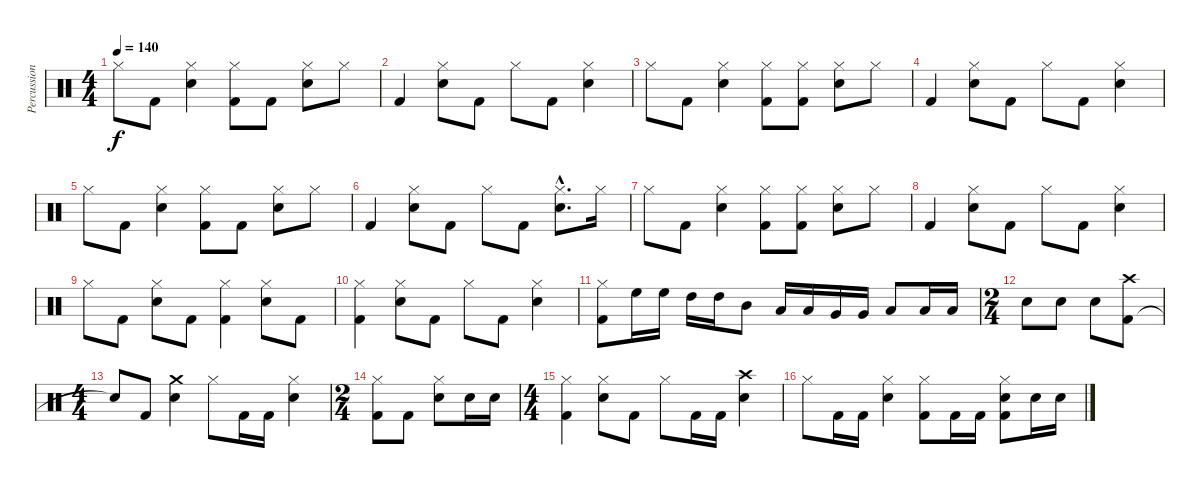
\track ("Percussion" "Percussion") {instrument percussion}
\staff {score}
\articulation defaults
\ts (4 4)
\tempo 140
\clef neutral
\ks c "Hi-Hat (closed)".8{dy f} "Kick (hit) 2".8
("Snare (hit) 2" "Hi-Hat (closed)").4 ("Kick (hit) 2" "Hi-Hat (closed)").8 "Kick (hit) 2".8 ("Snare (hit) 2" "Hi-Hat (closed)").8 "Hi-Hat (closed)".8 |
"Kick (hit) 2".4 ("Snare (hit) 2" "Hi-Hat (closed)").8 "Kick (hit) 2".8 "Hi-Hat (closed)".8 "Kick (hit) 2".8 ("Snare (hit) 2" "Hi-Hat (closed)").4 |
"Hi-Hat (closed)".8 "Kick (hit) 2".8 ("Snare (hit) 2" "Hi-Hat (closed)").4 ("Kick (hit) 2" "Hi-Hat (closed)").8 ("Kick (hit) 2" "Hi-Hat (closed)").8 ("Snare (hit) 2" "Hi-Hat (closed)").8 "Hi-Hat (closed)".8 |
"Kick (hit) 2".4 ("Snare (hit) 2" "Hi-Hat (closed)").8 "Kick (hit) 2".8 "Hi-Hat (closed)".8 "Kick (hit) 2".8 ("Snare (hit) 2" "Hi-Hat (closed)").4 |
"Hi-Hat (closed)".8 "Kick (hit) 2".8 ("Snare (hit) 2" "Hi-Hat (closed)").4 ("Kick (hit) 2" "Hi-Hat (closed)").8 "Kick (hit) 2".8 ("Snare (hit) 2" "Hi-Hat (closed)").8 "Hi-Hat (closed)".8 |
"Kick (hit) 2".4 ("Snare (hit) 2" "Hi-Hat (closed)").8 "Kick (hit) 2".8 "Hi-Hat (closed)".8 "Kick (hit) 2".8 ("Snare (hit) 2"{hac} "Hi-Hat (closed)"{hac}).8{d} "Hi-Hat (closed)".16 |
"Hi-Hat (closed)".8 "Kick (hit) 2".8 ("Snare (hit) 2" "Hi-Hat (closed)").4 ("Kick (hit) 2" "Hi-Hat (closed)").8 ("Kick (hit) 2" "Hi-Hat (closed)").8 ("Snare (hit) 2" "Hi-Hat (closed)").8 "Hi-Hat (closed)".8 |
"Kick (hit) 2".4 ("Snare (hit) 2" "Hi-Hat (closed)").8 "Kick (hit) 2".8 "Hi-Hat (closed)".8 "Kick (hit) 2".8 ("Snare (hit) 2" "Hi-Hat (closed)").4 |
"Hi-Hat (closed)".8 "Kick (hit) 2".8 ("Snare (hit) 2" "Hi-Hat (closed)").8 "Kick (hit) 2".8 ("Kick (hit) 2" "Hi-Hat (closed)").4 ("Snare (hit) 2" "Hi-Hat (closed)").8 "Kick (hit) 2".8 |
("Kick (hit) 2" "Hi-Hat (closed)").4 ("Snare (hit) 2" "Hi-Hat (closed)").8 "Kick (hit) 2".8 "Hi-Hat (closed)".8 "Kick (hit) 2".8 ("Snare (hit) 2" "Hi-Hat (closed)").4 |
("Kick (hit) 2" "Hi-Hat (closed)").8 "High Floor Tom (hit)".16 "High Floor Tom (hit)".16 "High Tom (hit)".16 "High Tom (hit)".16 "Mid Tom (hit)".8 "Low Tom (hit)".16 "Low Tom (hit)".16 "Very Low Tom (hit)".16 "Very Low Tom (hit)".16 "Low Floor Tom (hit)".8 "Low Tom (hit)".16 "Low Tom (hit)".16 |
\ts (2 4)
"Snare (hit) 2".8 "Snare (hit) 2".8 "Snare (hit) 2".8 ("Kick (hit) 2" "Crash high (hit)").8 |
\ts (4 4)
"Snare (hit)"{t}.8 "Kick (hit) 2".8 ("Snare (hit) 2" "Crash medium (hit)").4 "Hi-Hat (closed)".8 "Kick (hit) 2".16 "Kick (hit) 2".16 ("Snare (hit) 2" "Hi-Hat (closed)").4 |
\ts (2 4)
("Kick (hit) 2" "Hi-Hat (closed)").8 "Kick (hit) 2".8 ("Snare (hit) 2" "Hi-Hat (closed)").8 "Snare (hit) 2".16 "Snare (hit) 2".16 |
\ts (4 4)
("Kick (hit) 2" "Hi-Hat (closed)").4 ("Snare (hit) 2" "Hi-Hat (closed)").8 "Kick (hit) 2".8 "Hi-Hat (closed)".8 "Kick (hit) 2".16 "Kick (hit) 2".16 ("Snare (hit) 2" "Crash high (hit)").4 |
"Hi-Hat (closed)".8 "Kick (hit) 2".16 "Kick (hit) 2".16 ("Snare (hit) 2" "Hi-Hat (closed)").4 ("Kick (hit) 2" "Hi-Hat (closed)").8 "Kick (hit) 2".16 "Kick (hit) 2".16 ("Kick (hit) 2" "Snare (hit) 2" "Hi-Hat (closed)").8 "Snare (hit) 2".16 "Snare (hit) 2".16
